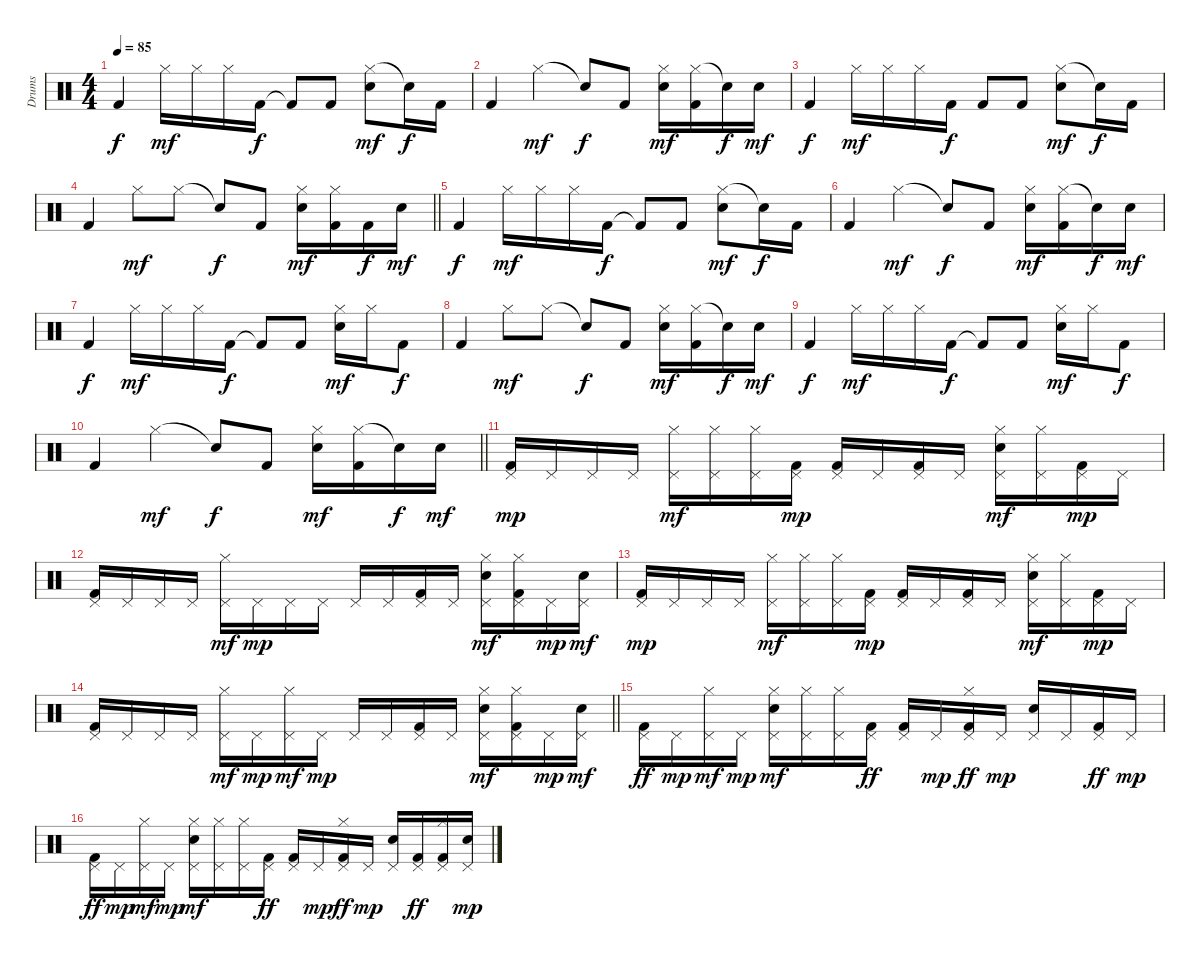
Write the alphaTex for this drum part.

\track ("Drums" "Drums") {instrument percussion}
\staff {score}
\articulation defaults
\ts (4 4)
\tempo 85
\clef neutral
\ks c "Kick (hit) 2".4{dy f} "Hi-Hat (closed)".16{dy mf} "Hi-Hat (closed)".16 "Hi-Hat (closed)".16 "Kick (hit) 2".16{dy f} "Kick (hit) 2"{t}.8 "Kick (hit) 2".8
("Hi-Hat (closed)" "Snare (hit) 2").8{dy mf} "Snare (hit)"{t}.16{dy f} "Kick (hit) 2".16 |
"Kick (hit) 2".4 "Hi-Hat (closed)".4{dy mf} "Snare (hit)"{t}.8{dy f} "Kick (hit) 2".8 ("Hi-Hat (closed)" "Snare (hit) 2").16{dy mf} ("Hi-Hat (closed)" "Kick (hit) 2").16 "Snare (hit)"{t}.16{dy f} "Snare (hit) 2".16{dy mf} |
"Kick (hit) 2".4{dy f} "Hi-Hat (closed)".16{dy mf} "Hi-Hat (closed)".16 "Hi-Hat (closed)".16 "Kick (hit) 2".16{dy f} "Kick (hit) 2".8 "Kick (hit) 2".8 ("Hi-Hat (closed)" "Snare (hit) 2").8{dy mf} "Snare (hit)"{t}.16{dy f} "Kick (hit) 2".16 |
\barLineRight lightlight "Kick (hit) 2".4 "Hi-Hat (closed)".8{dy mf} "Hi-Hat (closed)".8 "Snare (hit)"{t}.8{dy f} "Kick (hit) 2".8
("Hi-Hat (closed)" "Snare (hit) 2").16{dy mf} ("Hi-Hat (closed)" "Kick (hit) 2").16 "Kick (hit) 2".16{dy f} "Snare (hit) 2".16{dy mf} |
\section ("" "")
"Kick (hit) 2".4{dy f} "Hi-Hat (closed)".16{dy mf} "Hi-Hat (closed)".16 "Hi-Hat (closed)".16 "Kick (hit) 2".16{dy f} "Kick (hit) 2"{t}.8 "Kick (hit) 2".8 ("Hi-Hat (closed)" "Snare (hit) 2").8{dy mf} "Snare (hit)"{t}.16{dy f} "Kick (hit) 2".16 |
"Kick (hit) 2".4 "Hi-Hat (closed)".4{dy mf} "Snare (hit)"{t}.8{dy f} "Kick (hit) 2".8 ("Hi-Hat (closed)" "Snare (hit) 2").16{dy mf} ("Hi-Hat (closed)" "Kick (hit) 2").16 "Snare (hit)"{t}.16{dy f} "Snare (hit) 2".16{dy mf} |
"Kick (hit) 2".4{dy f} "Hi-Hat (closed)".16{dy mf} "Hi-Hat (closed)".16 "Hi-Hat (closed)".16 "Kick (hit) 2".16{dy f} "Kick (hit) 2"{t}.8 "Kick (hit) 2".8 ("Hi-Hat (closed)" "Snare (hit) 2").16{dy mf} "Hi-Hat (closed)".16 "Kick (hit) 2".8{dy f} |
"Kick (hit) 2".4 "Hi-Hat (closed)".8{dy mf} "Hi-Hat (closed)".8 "Snare (hit)"{t}.8{dy f} "Kick (hit) 2".8 ("Hi-Hat (closed)" "Snare (hit) 2").16{dy mf} ("Hi-Hat (closed)" "Kick (hit) 2").16 "Snare (hit)"{t}.16{dy f} "Snare (hit) 2".16{dy mf} |
"Kick (hit) 2".4{dy f} "Hi-Hat (closed)".16{dy mf} "Hi-Hat (closed)".16 "Hi-Hat (closed)".16 "Kick (hit) 2".16{dy f} "Kick (hit) 2"{t}.8 "Kick (hit) 2".8 ("Hi-Hat (closed)" "Snare (hit) 2").16{dy mf} "Hi-Hat (closed)".16 "Kick (hit) 2".8{dy f} |
\barLineRight lightlight "Kick (hit) 2".4 "Hi-Hat (closed)".4{dy mf} "Snare (hit)"{t}.8{dy f} "Kick (hit) 2".8
("Hi-Hat (closed)" "Snare (hit) 2").16{dy mf} ("Hi-Hat (closed)" "Kick (hit) 2").16 "Snare (hit)"{t}.16{dy f} "Snare (hit) 2".16{dy mf} |
\section ("" "")
("Pedal Hi-Hat (hit)" "Kick (hit) 2").16{dy mp} "Pedal Hi-Hat (hit)".16 "Pedal Hi-Hat (hit)".16 "Pedal Hi-Hat (hit)".16 ("Pedal Hi-Hat (hit)" "Hi-Hat (closed)").16{dy mf} ("Pedal Hi-Hat (hit)" "Hi-Hat (closed)").16 ("Pedal Hi-Hat (hit)" "Hi-Hat (closed)").16 ("Pedal Hi-Hat (hit)" "Kick (hit) 2").16{dy mp} ("Pedal Hi-Hat (hit)" "Kick (hit) 2").16 "Pedal Hi-Hat (hit)".16 ("Pedal Hi-Hat (hit)" "Kick (hit) 2").16 "Pedal Hi-Hat (hit)".16 ("Pedal Hi-Hat (hit)" "Hi-Hat (closed)" "Snare (hit) 2").16{dy mf} ("Pedal Hi-Hat (hit)" "Hi-Hat (closed)").16 ("Pedal Hi-Hat (hit)" "Kick (hit) 2").16{dy mp} "Pedal Hi-Hat (hit)".16 |
("Pedal Hi-Hat (hit)" "Kick (hit) 2").16 "Pedal Hi-Hat (hit)".16 "Pedal Hi-Hat (hit)".16 "Pedal Hi-Hat (hit)".16 ("Pedal Hi-Hat (hit)" "Hi-Hat (closed)").16{dy mf} "Pedal Hi-Hat (hit)".16{dy mp} "Pedal Hi-Hat (hit)".16 "Pedal Hi-Hat (hit)".16 "Pedal Hi-Hat (hit)".16 "Pedal Hi-Hat (hit)".16 ("Pedal Hi-Hat (hit)" "Kick (hit) 2").16 "Pedal Hi-Hat (hit)".16 ("Pedal Hi-Hat (hit)" "Hi-Hat (closed)" "Snare (hit) 2").16{dy mf} ("Pedal Hi-Hat (hit)" "Hi-Hat (closed)" "Kick (hit) 2").16 "Pedal Hi-Hat (hit)".16{dy mp} ("Pedal Hi-Hat (hit)" "Snare (hit) 2").16{dy mf} |
("Pedal Hi-Hat (hit)" "Kick (hit) 2").16{dy mp} "Pedal Hi-Hat (hit)".16 "Pedal Hi-Hat (hit)".16 "Pedal Hi-Hat (hit)".16 ("Pedal Hi-Hat (hit)" "Hi-Hat (closed)").16{dy mf} ("Pedal Hi-Hat (hit)" "Hi-Hat (closed)").16 ("Pedal Hi-Hat (hit)" "Hi-Hat (closed)").16 ("Pedal Hi-Hat (hit)" "Kick (hit) 2").16{dy mp} ("Pedal Hi-Hat (hit)" "Kick (hit) 2").16 "Pedal Hi-Hat (hit)".16 ("Pedal Hi-Hat (hit)" "Kick (hit) 2").16 "Pedal Hi-Hat (hit)".16 ("Pedal Hi-Hat (hit)" "Hi-Hat (closed)" "Snare (hit) 2").16{dy mf} ("Pedal Hi-Hat (hit)" "Hi-Hat (closed)").16 ("Pedal Hi-Hat (hit)" "Kick (hit) 2").16{dy mp} "Pedal Hi-Hat (hit)".16 |
\barLineRight lightlight
("Pedal Hi-Hat (hit)" "Kick (hit) 2").16 "Pedal Hi-Hat (hit)".16 "Pedal Hi-Hat (hit)".16 "Pedal Hi-Hat (hit)".16 ("Pedal Hi-Hat (hit)" "Hi-Hat (closed)").16{dy mf} "Pedal Hi-Hat (hit)".16{dy mp} ("Pedal Hi-Hat (hit)" "Hi-Hat (closed)").16{dy mf} "Pedal Hi-Hat (hit)".16{dy mp} "Pedal Hi-Hat (hit)".16 "Pedal Hi-Hat (hit)".16 ("Pedal Hi-Hat (hit)" "Kick (hit) 2").16 "Pedal Hi-Hat (hit)".16 ("Pedal Hi-Hat (hit)" "Hi-Hat (closed)" "Snare (hit) 2").16{dy mf} ("Pedal Hi-Hat (hit)" "Hi-Hat (closed)" "Kick (hit) 2").16 "Pedal Hi-Hat (hit)".16{dy mp} ("Pedal Hi-Hat (hit)" "Snare (hit) 2").16{dy mf} |
\section ("" "")
("Pedal Hi-Hat (hit)" "Kick (hit) 2").16{dy ff} "Pedal Hi-Hat (hit)".16{dy mp} ("Pedal Hi-Hat (hit)" "Hi-Hat (closed)").16{dy mf} "Pedal Hi-Hat (hit)".16{dy mp} ("Pedal Hi-Hat (hit)" "Hi-Hat (closed)" "Snare (hit) 2").16{dy mf} ("Pedal Hi-Hat (hit)" "Hi-Hat (closed)").16 ("Pedal Hi-Hat (hit)" "Hi-Hat (closed)").16 ("Pedal Hi-Hat (hit)" "Kick (hit) 2").16{dy ff} ("Pedal Hi-Hat (hit)" "Kick (hit) 2").16 "Pedal Hi-Hat (hit)".16{dy mp} ("Pedal Hi-Hat (hit)" "Hi-Hat (closed)" "Kick (hit) 2").16{dy ff} "Pedal Hi-Hat (hit)".16{dy mp} ("Pedal Hi-Hat (hit)" "Snare (hit) 2").16 "Pedal Hi-Hat (hit)".16 ("Pedal Hi-Hat (hit)" "Kick (hit) 2").16{dy ff} "Pedal Hi-Hat (hit)".16{dy mp} |
("Pedal Hi-Hat (hit)" "Kick (hit) 2").16{dy ff} "Pedal Hi-Hat (hit)".16{dy mp} ("Pedal Hi-Hat (hit)" "Hi-Hat (closed)").16{dy mf} "Pedal Hi-Hat (hit)".16{dy mp} ("Pedal Hi-Hat (hit)" "Hi-Hat (closed)" "Snare (hit) 2").16{dy mf} ("Pedal Hi-Hat (hit)" "Hi-Hat (closed)").16 ("Pedal Hi-Hat (hit)" "Hi-Hat (closed)").16 ("Pedal Hi-Hat (hit)" "Kick (hit) 2").16{dy ff} ("Pedal Hi-Hat (hit)" "Kick (hit) 2").16 "Pedal Hi-Hat (hit)".16{dy mp} ("Pedal Hi-Hat (hit)" "Hi-Hat (closed)" "Kick (hit) 2").16{dy ff} "Pedal Hi-Hat (hit)".16{dy mp} ("Pedal Hi-Hat (hit)" "Snare (hit) 2").16 ("Pedal Hi-Hat (hit)" "Kick (hit) 2").16{dy ff} ("Pedal Hi-Hat (hit)" "Hi-Hat (closed)" "Kick (hit) 2").16 ("Pedal Hi-Hat (hit)" "Snare (hit) 2").16{dy mp}
